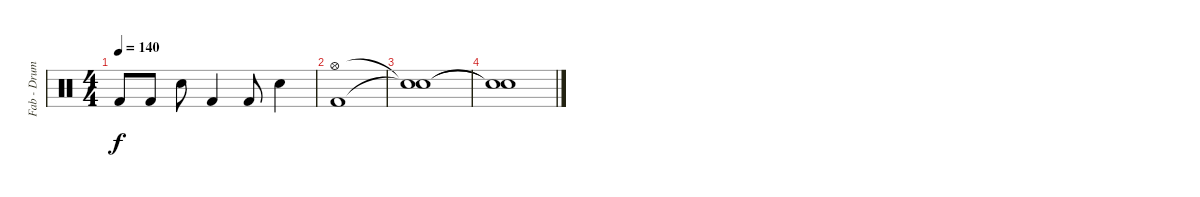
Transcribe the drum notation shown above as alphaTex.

\track ("Fab - Drums MIDI" "Fab - Drum") {instrument percussion}
\staff {score}
\articulation defaults
\ts (4 4)
\tempo 140
\clef neutral
\ks c "Kick (hit) 2".8{dy f} "Kick (hit) 2".8 "Snare (hit) 2".8 "Kick (hit) 2".4 "Kick (hit) 2".8 "Snare (hit) 2".4
|
("Hi-Hat (open)" "Kick (hit) 2").1 |
("Snare (hit)"{t} "Snare (hit)"{t}).1 |
("Snare (hit)"{t} "Snare (hit)"{t}).1
